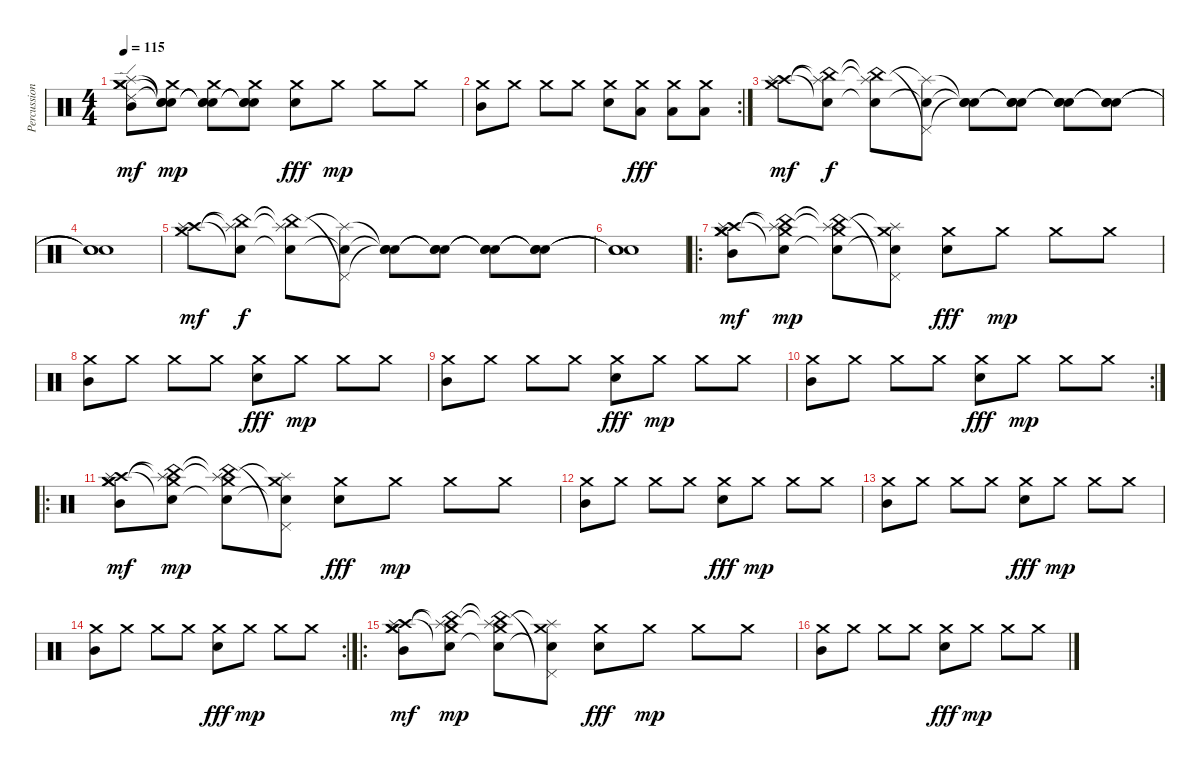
\track ("Percussion" "Percussion") {instrument percussion}
\staff {score}
\articulation defaults
\ts (4 4)
\tempo 115
\clef neutral
\ks c
("Crash medium (hit)" "Ride (edge) 2" "Crash medium (hit)" "Splash (hit)" "Mid Tom (hit)").8{dy mf} ("Snare (hit)"{t} "Snare (hit)"{t} "Crash medium (hit)" "Snare (hit)"{t}).8{dy mp} ("Snare (hit)"{t} "Snare (hit)"{t} "Crash medium (hit)" "Snare (hit)"{t}).8 ("Snare (hit)"{t} "Snare (hit)"{t} "Crash medium (hit)" "Snare (hit)"{t}).8 ("Crash medium (hit)" "Electric Snare (hit)").8{dy fff} "Crash medium (hit)".8{dy mp} "Crash medium (hit)".8 "Crash medium (hit)".8 |
\rc 2
("Crash medium (hit)" "Mid Tom (hit)").8 "Crash medium (hit)".8 "Crash medium (hit)".8 "Crash medium (hit)".8 ("Crash medium (hit)" "Electric Snare (hit)").8 ("Crash medium (hit)" "Low Tom (hit)").8{dy fff} ("Crash medium (hit)" "Low Tom (hit)").8 ("Crash medium (hit)" "Low Tom (hit)").8 |
("Crash medium (hit)" "Crash high (hit)" "Splash (hit)").8{dy mf} ("China (hit)"{t} "Snare (hit)"{t} "Splash (hit)"{t}).8{dy f} ("China (hit)"{t} "Snare (hit)"{t} "Splash (hit)"{t}).8 ("Pedal Hi-Hat (hit)"{t} "Snare (hit)"{t} "Splash (hit)"{t}).8 ("Snare (hit)"{t} "Snare (hit)"{t} "Snare (hit)"{t}).8 ("Snare (hit)"{t} "Snare (hit)"{t} "Snare (hit)"{t}).8 ("Snare (hit)"{t} "Snare (hit)"{t} "Snare (hit)"{t}).8 ("Snare (hit)"{t} "Snare (hit)"{t} "Snare (hit)"{t}).8 |
("Snare (hit)"{t} "Snare (hit)"{t} "Snare (hit)"{t}).1 |
("Crash medium (hit)" "Crash high (hit)" "Splash (hit)").8{dy mf} ("China (hit)"{t} "Snare (hit)"{t} "Splash (hit)"{t}).8{dy f} ("China (hit)"{t} "Snare (hit)"{t} "Splash (hit)"{t}).8 ("Pedal Hi-Hat (hit)"{t} "Snare (hit)"{t} "Splash (hit)"{t}).8 ("Snare (hit)"{t} "Snare (hit)"{t} "Snare (hit)"{t}).8 ("Snare (hit)"{t} "Snare (hit)"{t} "Snare (hit)"{t}).8 ("Snare (hit)"{t} "Snare (hit)"{t} "Snare (hit)"{t}).8 ("Snare (hit)"{t} "Snare (hit)"{t} "Snare (hit)"{t}).8 |
("Snare (hit)"{t} "Snare (hit)"{t} "Snare (hit)"{t}).1 |
\ro
("Crash medium (hit)" "Crash high (hit)" "Crash medium (hit)" "Splash (hit)" "Mid Tom (hit)").8{dy mf} ("China (hit)"{t} "Snare (hit)"{t} "Crash medium (hit)" "Splash (hit)"{t}).8{dy mp} ("China (hit)"{t} "Snare (hit)"{t} "Crash medium (hit)" "Splash (hit)"{t}).8 ("Pedal Hi-Hat (hit)"{t} "Snare (hit)"{t} "Crash medium (hit)" "Splash (hit)"{t}).8 ("Crash medium (hit)" "Electric Snare (hit)").8{dy fff} "Crash medium (hit)".8{dy mp} "Crash medium (hit)".8 "Crash medium (hit)".8 |
("Crash medium (hit)" "Mid Tom (hit)").8 "Crash medium (hit)".8 "Crash medium (hit)".8 "Crash medium (hit)".8 ("Crash medium (hit)" "Electric Snare (hit)").8{dy fff} "Crash medium (hit)".8{dy mp} "Crash medium (hit)".8 "Crash medium (hit)".8 |
("Crash medium (hit)" "Mid Tom (hit)").8 "Crash medium (hit)".8 "Crash medium (hit)".8 "Crash medium (hit)".8 ("Crash medium (hit)" "Electric Snare (hit)").8{dy fff} "Crash medium (hit)".8{dy mp} "Crash medium (hit)".8 "Crash medium (hit)".8 |
\rc 2
("Crash medium (hit)" "Mid Tom (hit)").8 "Crash medium (hit)".8 "Crash medium (hit)".8 "Crash medium (hit)".8 ("Crash medium (hit)" "Electric Snare (hit)").8{dy fff} "Crash medium (hit)".8{dy mp} "Crash medium (hit)".8 "Crash medium (hit)".8 |
\ro
("Crash medium (hit)" "Crash high (hit)" "Crash medium (hit)" "Splash (hit)" "Mid Tom (hit)").8{dy mf} ("China (hit)"{t} "Snare (hit)"{t} "Crash medium (hit)" "Splash (hit)"{t}).8{dy mp} ("China (hit)"{t} "Snare (hit)"{t} "Crash medium (hit)" "Splash (hit)"{t}).8 ("Pedal Hi-Hat (hit)"{t} "Snare (hit)"{t} "Crash medium (hit)" "Splash (hit)"{t}).8 ("Crash medium (hit)" "Electric Snare (hit)").8{dy fff} "Crash medium (hit)".8{dy mp} "Crash medium (hit)".8 "Crash medium (hit)".8 |
("Crash medium (hit)" "Mid Tom (hit)").8 "Crash medium (hit)".8 "Crash medium (hit)".8 "Crash medium (hit)".8 ("Crash medium (hit)" "Electric Snare (hit)").8{dy fff} "Crash medium (hit)".8{dy mp} "Crash medium (hit)".8 "Crash medium (hit)".8 |
("Crash medium (hit)" "Mid Tom (hit)").8 "Crash medium (hit)".8 "Crash medium (hit)".8 "Crash medium (hit)".8 ("Crash medium (hit)" "Electric Snare (hit)").8{dy fff} "Crash medium (hit)".8{dy mp} "Crash medium (hit)".8 "Crash medium (hit)".8 |
\rc 2
("Crash medium (hit)" "Mid Tom (hit)").8 "Crash medium (hit)".8 "Crash medium (hit)".8 "Crash medium (hit)".8 ("Crash medium (hit)" "Electric Snare (hit)").8{dy fff} "Crash medium (hit)".8{dy mp} "Crash medium (hit)".8 "Crash medium (hit)".8 |
\ro
("Crash medium (hit)" "Crash high (hit)" "Crash medium (hit)" "Splash (hit)" "Mid Tom (hit)").8{dy mf} ("China (hit)"{t} "Snare (hit)"{t} "Crash medium (hit)" "Splash (hit)"{t}).8{dy mp} ("China (hit)"{t} "Snare (hit)"{t} "Crash medium (hit)" "Splash (hit)"{t}).8 ("Pedal Hi-Hat (hit)"{t} "Snare (hit)"{t} "Crash medium (hit)" "Splash (hit)"{t}).8 ("Crash medium (hit)" "Electric Snare (hit)").8{dy fff} "Crash medium (hit)".8{dy mp} "Crash medium (hit)".8 "Crash medium (hit)".8 |
("Crash medium (hit)" "Mid Tom (hit)").8 "Crash medium (hit)".8 "Crash medium (hit)".8 "Crash medium (hit)".8 ("Crash medium (hit)" "Electric Snare (hit)").8{dy fff} "Crash medium (hit)".8{dy mp} "Crash medium (hit)".8 "Crash medium (hit)".8
